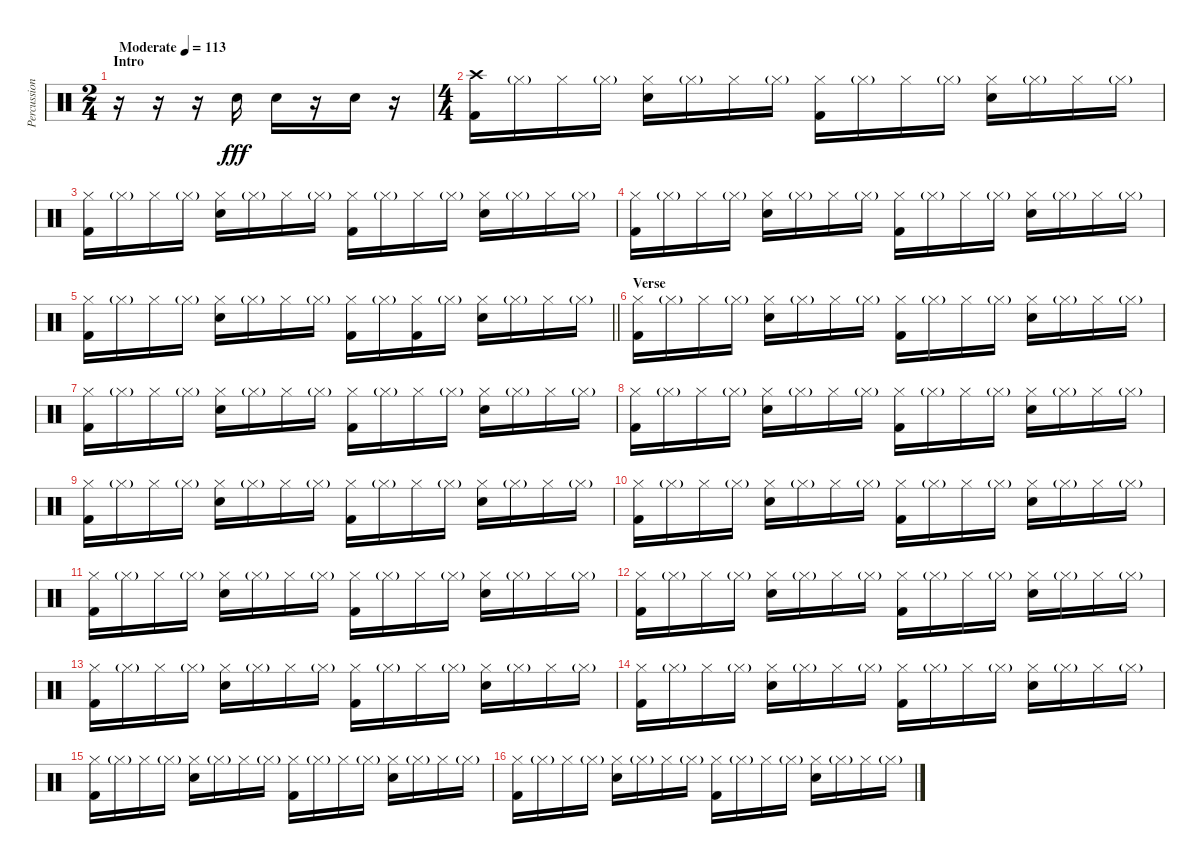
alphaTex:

\track ("Percussion" "Percussion") {instrument percussion}
\staff {score}
\articulation defaults
\ts (2 4)
\section ("" "Intro")
\tempo (113 "Moderate")
\clef neutral
\ks c
r.16{dy fff} r.16 r.16 "Electric Snare (hit)".16 "Electric Snare (hit)".16 r.16 "Electric Snare (hit)".16 r.16 |
\ts (4 4)
("Crash high (hit)" "Kick (hit) 2").16 "Hi-Hat (closed)"{g}.16 "Hi-Hat (closed)".16 "Hi-Hat (closed)"{g}.16 ("Hi-Hat (closed)" "Electric Snare (hit)").16 "Hi-Hat (closed)"{g}.16 "Hi-Hat (closed)".16 "Hi-Hat (closed)"{g}.16 ("Hi-Hat (closed)" "Kick (hit) 2").16 "Hi-Hat (closed)"{g}.16 "Hi-Hat (closed)".16 "Hi-Hat (closed)"{g}.16 ("Hi-Hat (closed)" "Electric Snare (hit)").16 "Hi-Hat (closed)"{g}.16 "Hi-Hat (closed)".16 "Hi-Hat (closed)"{g}.16 |
("Hi-Hat (closed)" "Kick (hit) 2").16 "Hi-Hat (closed)"{g}.16 "Hi-Hat (closed)".16 "Hi-Hat (closed)"{g}.16 ("Hi-Hat (closed)" "Electric Snare (hit)").16 "Hi-Hat (closed)"{g}.16 "Hi-Hat (closed)".16 "Hi-Hat (closed)"{g}.16 ("Hi-Hat (closed)" "Kick (hit) 2").16 "Hi-Hat (closed)"{g}.16 "Hi-Hat (closed)".16 "Hi-Hat (closed)"{g}.16 ("Hi-Hat (closed)" "Electric Snare (hit)").16 "Hi-Hat (closed)"{g}.16 "Hi-Hat (closed)".16 "Hi-Hat (closed)"{g}.16 |
("Hi-Hat (closed)" "Kick (hit) 2").16 "Hi-Hat (closed)"{g}.16 "Hi-Hat (closed)".16 "Hi-Hat (closed)"{g}.16 ("Hi-Hat (closed)" "Electric Snare (hit)").16 "Hi-Hat (closed)"{g}.16 "Hi-Hat (closed)".16 "Hi-Hat (closed)"{g}.16 ("Hi-Hat (closed)" "Kick (hit) 2").16 "Hi-Hat (closed)"{g}.16 "Hi-Hat (closed)".16 "Hi-Hat (closed)"{g}.16 ("Hi-Hat (closed)" "Electric Snare (hit)").16 "Hi-Hat (closed)"{g}.16 "Hi-Hat (closed)".16 "Hi-Hat (closed)"{g}.16 |
\barLineRight lightlight
("Hi-Hat (closed)" "Kick (hit) 2").16 "Hi-Hat (closed)"{g}.16 "Hi-Hat (closed)".16 "Hi-Hat (closed)"{g}.16 ("Hi-Hat (closed)" "Electric Snare (hit)").16 "Hi-Hat (closed)"{g}.16 "Hi-Hat (closed)".16 "Hi-Hat (closed)"{g}.16 ("Hi-Hat (closed)" "Kick (hit) 2").16 "Hi-Hat (closed)"{g}.16 ("Hi-Hat (closed)" "Kick (hit) 2").16 "Hi-Hat (closed)"{g}.16 ("Hi-Hat (closed)" "Electric Snare (hit)").16 "Hi-Hat (closed)"{g}.16 "Hi-Hat (closed)".16 "Hi-Hat (closed)"{g}.16 |
\section ("" "Verse")
("Hi-Hat (closed)" "Kick (hit) 2").16 "Hi-Hat (closed)"{g}.16 "Hi-Hat (closed)".16 "Hi-Hat (closed)"{g}.16 ("Hi-Hat (closed)" "Electric Snare (hit)").16 "Hi-Hat (closed)"{g}.16 "Hi-Hat (closed)".16 "Hi-Hat (closed)"{g}.16 ("Hi-Hat (closed)" "Kick (hit) 2").16 "Hi-Hat (closed)"{g}.16 "Hi-Hat (closed)".16 "Hi-Hat (closed)"{g}.16 ("Hi-Hat (closed)" "Electric Snare (hit)").16 "Hi-Hat (closed)"{g}.16 "Hi-Hat (closed)".16 "Hi-Hat (closed)"{g}.16 |
("Hi-Hat (closed)" "Kick (hit) 2").16 "Hi-Hat (closed)"{g}.16 "Hi-Hat (closed)".16 "Hi-Hat (closed)"{g}.16 ("Hi-Hat (closed)" "Electric Snare (hit)").16 "Hi-Hat (closed)"{g}.16 "Hi-Hat (closed)".16 "Hi-Hat (closed)"{g}.16 ("Hi-Hat (closed)" "Kick (hit) 2").16 "Hi-Hat (closed)"{g}.16 "Hi-Hat (closed)".16 "Hi-Hat (closed)"{g}.16 ("Hi-Hat (closed)" "Electric Snare (hit)").16 "Hi-Hat (closed)"{g}.16 "Hi-Hat (closed)".16 "Hi-Hat (closed)"{g}.16 |
("Hi-Hat (closed)" "Kick (hit) 2").16 "Hi-Hat (closed)"{g}.16 "Hi-Hat (closed)".16 "Hi-Hat (closed)"{g}.16 ("Hi-Hat (closed)" "Electric Snare (hit)").16 "Hi-Hat (closed)"{g}.16 "Hi-Hat (closed)".16 "Hi-Hat (closed)"{g}.16 ("Hi-Hat (closed)" "Kick (hit) 2").16 "Hi-Hat (closed)"{g}.16 "Hi-Hat (closed)".16 "Hi-Hat (closed)"{g}.16 ("Hi-Hat (closed)" "Electric Snare (hit)").16 "Hi-Hat (closed)"{g}.16 "Hi-Hat (closed)".16 "Hi-Hat (closed)"{g}.16 |
("Hi-Hat (closed)" "Kick (hit) 2").16 "Hi-Hat (closed)"{g}.16 "Hi-Hat (closed)".16 "Hi-Hat (closed)"{g}.16 ("Hi-Hat (closed)" "Electric Snare (hit)").16 "Hi-Hat (closed)"{g}.16 "Hi-Hat (closed)".16 "Hi-Hat (closed)"{g}.16 ("Hi-Hat (closed)" "Kick (hit) 2").16 "Hi-Hat (closed)"{g}.16 "Hi-Hat (closed)".16 "Hi-Hat (closed)"{g}.16 ("Hi-Hat (closed)" "Electric Snare (hit)").16 "Hi-Hat (closed)"{g}.16 "Hi-Hat (closed)".16 "Hi-Hat (closed)"{g}.16 |
("Hi-Hat (closed)" "Kick (hit) 2").16 "Hi-Hat (closed)"{g}.16 "Hi-Hat (closed)".16 "Hi-Hat (closed)"{g}.16 ("Hi-Hat (closed)" "Electric Snare (hit)").16 "Hi-Hat (closed)"{g}.16 "Hi-Hat (closed)".16 "Hi-Hat (closed)"{g}.16 ("Hi-Hat (closed)" "Kick (hit) 2").16 "Hi-Hat (closed)"{g}.16 "Hi-Hat (closed)".16 "Hi-Hat (closed)"{g}.16 ("Hi-Hat (closed)" "Electric Snare (hit)").16 "Hi-Hat (closed)"{g}.16 "Hi-Hat (closed)".16 "Hi-Hat (closed)"{g}.16 |
("Hi-Hat (closed)" "Kick (hit) 2").16 "Hi-Hat (closed)"{g}.16 "Hi-Hat (closed)".16 "Hi-Hat (closed)"{g}.16 ("Hi-Hat (closed)" "Electric Snare (hit)").16 "Hi-Hat (closed)"{g}.16 "Hi-Hat (closed)".16 "Hi-Hat (closed)"{g}.16 ("Hi-Hat (closed)" "Kick (hit) 2").16 "Hi-Hat (closed)"{g}.16 "Hi-Hat (closed)".16 "Hi-Hat (closed)"{g}.16 ("Hi-Hat (closed)" "Electric Snare (hit)").16 "Hi-Hat (closed)"{g}.16 "Hi-Hat (closed)".16 "Hi-Hat (closed)"{g}.16 |
("Hi-Hat (closed)" "Kick (hit) 2").16 "Hi-Hat (closed)"{g}.16 "Hi-Hat (closed)".16 "Hi-Hat (closed)"{g}.16 ("Hi-Hat (closed)" "Electric Snare (hit)").16 "Hi-Hat (closed)"{g}.16 "Hi-Hat (closed)".16 "Hi-Hat (closed)"{g}.16 ("Hi-Hat (closed)" "Kick (hit) 2").16 "Hi-Hat (closed)"{g}.16 "Hi-Hat (closed)".16 "Hi-Hat (closed)"{g}.16 ("Hi-Hat (closed)" "Electric Snare (hit)").16 "Hi-Hat (closed)"{g}.16 "Hi-Hat (closed)".16 "Hi-Hat (closed)"{g}.16 |
("Hi-Hat (closed)" "Kick (hit) 2").16 "Hi-Hat (closed)"{g}.16 "Hi-Hat (closed)".16 "Hi-Hat (closed)"{g}.16 ("Hi-Hat (closed)" "Electric Snare (hit)").16 "Hi-Hat (closed)"{g}.16 "Hi-Hat (closed)".16 "Hi-Hat (closed)"{g}.16 ("Hi-Hat (closed)" "Kick (hit) 2").16 "Hi-Hat (closed)"{g}.16 "Hi-Hat (closed)".16 "Hi-Hat (closed)"{g}.16 ("Hi-Hat (closed)" "Electric Snare (hit)").16 "Hi-Hat (closed)"{g}.16 "Hi-Hat (closed)".16 "Hi-Hat (closed)"{g}.16 |
("Hi-Hat (closed)" "Kick (hit) 2").16 "Hi-Hat (closed)"{g}.16 "Hi-Hat (closed)".16 "Hi-Hat (closed)"{g}.16 ("Hi-Hat (closed)" "Electric Snare (hit)").16 "Hi-Hat (closed)"{g}.16 "Hi-Hat (closed)".16 "Hi-Hat (closed)"{g}.16 ("Hi-Hat (closed)" "Kick (hit) 2").16 "Hi-Hat (closed)"{g}.16 "Hi-Hat (closed)".16 "Hi-Hat (closed)"{g}.16 ("Hi-Hat (closed)" "Electric Snare (hit)").16 "Hi-Hat (closed)"{g}.16 "Hi-Hat (closed)".16 "Hi-Hat (closed)"{g}.16 |
("Hi-Hat (closed)" "Kick (hit) 2").16 "Hi-Hat (closed)"{g}.16 "Hi-Hat (closed)".16 "Hi-Hat (closed)"{g}.16 ("Hi-Hat (closed)" "Electric Snare (hit)").16 "Hi-Hat (closed)"{g}.16 "Hi-Hat (closed)".16 "Hi-Hat (closed)"{g}.16 ("Hi-Hat (closed)" "Kick (hit) 2").16 "Hi-Hat (closed)"{g}.16 "Hi-Hat (closed)".16 "Hi-Hat (closed)"{g}.16 ("Hi-Hat (closed)" "Electric Snare (hit)").16 "Hi-Hat (closed)"{g}.16 "Hi-Hat (closed)".16 "Hi-Hat (closed)"{g}.16 |
("Hi-Hat (closed)" "Kick (hit) 2").16 "Hi-Hat (closed)"{g}.16 "Hi-Hat (closed)".16 "Hi-Hat (closed)"{g}.16 ("Hi-Hat (closed)" "Electric Snare (hit)").16 "Hi-Hat (closed)"{g}.16 "Hi-Hat (closed)".16 "Hi-Hat (closed)"{g}.16 ("Hi-Hat (closed)" "Kick (hit) 2").16 "Hi-Hat (closed)"{g}.16 "Hi-Hat (closed)".16 "Hi-Hat (closed)"{g}.16 ("Hi-Hat (closed)" "Electric Snare (hit)").16 "Hi-Hat (closed)"{g}.16 "Hi-Hat (closed)".16 "Hi-Hat (closed)"{g}.16
